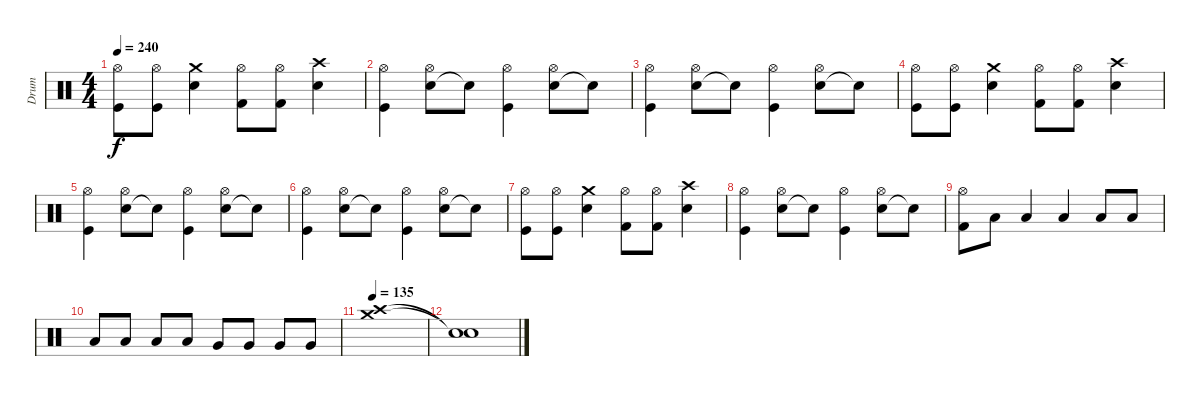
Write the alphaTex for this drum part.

\track ("Drum" "Drum") {instrument percussion}
\staff {score}
\articulation defaults
\ts (4 4)
\tempo 240
\clef neutral
\ks c
("Hi-Hat (open)" "Kick (hit)").8{dy f} ("Hi-Hat (open)" "Kick (hit)").8 ("Crash medium (hit)" "Snare (hit) 2").4 ("Hi-Hat (open)" "Kick (hit) 2").8 ("Hi-Hat (open)" "Kick (hit) 2").8 ("Crash high (hit)" "Snare (hit) 2").4 |
("Hi-Hat (open)" "Kick (hit)").4 ("Snare (hit) 2" "Hi-Hat (open)").8 "Electric Snare (hit)"{t}.8 ("Hi-Hat (open)" "Kick (hit)").4 ("Snare (hit) 2" "Hi-Hat (open)").8 "Electric Snare (hit)"{t}.8 |
("Hi-Hat (open)" "Kick (hit)").4 ("Snare (hit) 2" "Hi-Hat (open)").8 "Electric Snare (hit)"{t}.8 ("Hi-Hat (open)" "Kick (hit)").4 ("Snare (hit) 2" "Hi-Hat (open)").8 "Electric Snare (hit)"{t}.8 |
("Hi-Hat (open)" "Kick (hit)").8 ("Hi-Hat (open)" "Kick (hit)").8 ("Crash medium (hit)" "Snare (hit) 2").4 ("Hi-Hat (open)" "Kick (hit) 2").8 ("Hi-Hat (open)" "Kick (hit) 2").8 ("Crash high (hit)" "Snare (hit) 2").4 |
("Hi-Hat (open)" "Kick (hit)").4 ("Snare (hit) 2" "Hi-Hat (open)").8 "Electric Snare (hit)"{t}.8 ("Hi-Hat (open)" "Kick (hit)").4 ("Snare (hit) 2" "Hi-Hat (open)").8 "Electric Snare (hit)"{t}.8 |
("Hi-Hat (open)" "Kick (hit)").4 ("Snare (hit) 2" "Hi-Hat (open)").8 "Electric Snare (hit)"{t}.8 ("Hi-Hat (open)" "Kick (hit)").4 ("Snare (hit) 2" "Hi-Hat (open)").8 "Electric Snare (hit)"{t}.8 |
("Hi-Hat (open)" "Kick (hit)").8 ("Hi-Hat (open)" "Kick (hit)").8 ("Crash medium (hit)" "Snare (hit) 2").4 ("Hi-Hat (open)" "Kick (hit) 2").8 ("Hi-Hat (open)" "Kick (hit) 2").8 ("Crash high (hit)" "Snare (hit) 2").4 |
("Hi-Hat (open)" "Kick (hit)").4 ("Snare (hit) 2" "Hi-Hat (open)").8 "Electric Snare (hit)"{t}.8 ("Hi-Hat (open)" "Kick (hit)").4 ("Snare (hit) 2" "Hi-Hat (open)").8 "Electric Snare (hit)"{t}.8 |
("Hi-Hat (open)" "Kick (hit) 2").8 "Low Tom (hit)".8 "Low Tom (hit)".4 "Low Tom (hit)".4 "Low Tom (hit)".8 "Low Tom (hit)".8 |
"Low Tom (hit)".8 "Low Tom (hit)".8 "Low Tom (hit)".8 "Low Tom (hit)".8 "Very Low Tom (hit)".8 "Very Low Tom (hit)".8 "Very Low Tom (hit)".8 "Very Low Tom (hit)".8 |
\tempo 135
("Crash medium (hit)" "Crash high (hit)").1 |
("Snare (hit)"{t} "Snare (hit)"{t}).1
